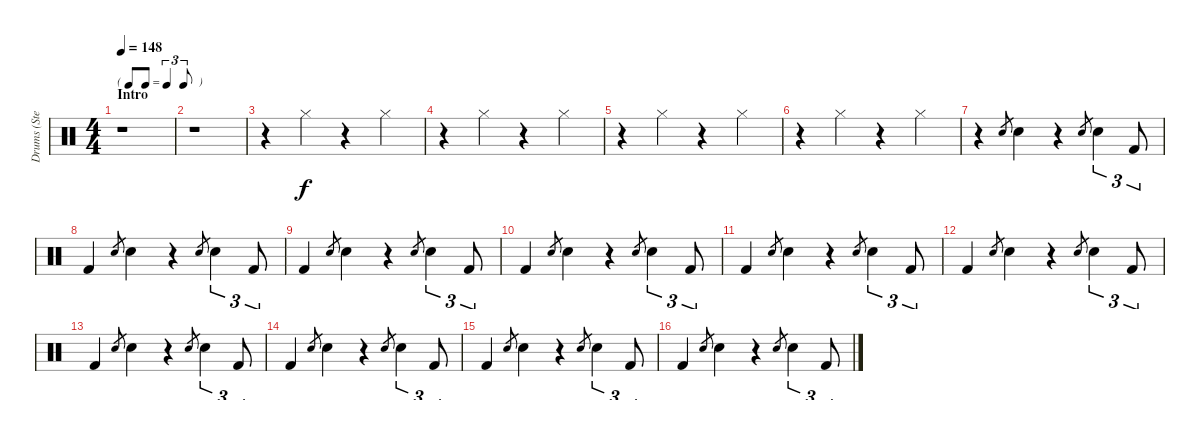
\track ("Drums (Steven)" "Drums (Ste") {instrument percussion}
\staff {score}
\articulation defaults
\ts (4 4)
\tf triplet8th
\section ("" "Intro")
\tempo 148
\clef neutral
\ks c
r.1{dy f} |
r.1 |
r.4 "Hi-Hat (closed)".4 r.4 "Hi-Hat (closed)".4 |
r.4 "Hi-Hat (closed)".4 r.4 "Hi-Hat (closed)".4 |
r.4 "Hi-Hat (closed)".4 r.4 "Hi-Hat (closed)".4 |
r.4 "Hi-Hat (closed)".4 r.4 "Hi-Hat (closed)".4 |
r.4 "Snare (hit) 2".8{gr} "Snare (hit) 2".4 r.4 "Snare (hit) 2".8{gr} "Snare (hit) 2".4{tu (3 2)} "Kick (hit) 2".8{tu (3 2)} |
"Kick (hit) 2".4 "Snare (hit) 2".8{gr} "Snare (hit) 2".4 r.4 "Snare (hit) 2".8{gr} "Snare (hit) 2".4{tu (3 2)} "Kick (hit) 2".8{tu (3 2)} |
"Kick (hit) 2".4 "Snare (hit) 2".8{gr} "Snare (hit) 2".4 r.4 "Snare (hit) 2".8{gr} "Snare (hit) 2".4{tu (3 2)} "Kick (hit) 2".8{tu (3 2)} |
"Kick (hit) 2".4 "Snare (hit) 2".8{gr} "Snare (hit) 2".4 r.4 "Snare (hit) 2".8{gr} "Snare (hit) 2".4{tu (3 2)} "Kick (hit) 2".8{tu (3 2)} |
"Kick (hit) 2".4 "Snare (hit) 2".8{gr} "Snare (hit) 2".4 r.4 "Snare (hit) 2".8{gr} "Snare (hit) 2".4{tu (3 2)} "Kick (hit) 2".8{tu (3 2)} |
"Kick (hit) 2".4 "Snare (hit) 2".8{gr} "Snare (hit) 2".4 r.4 "Snare (hit) 2".8{gr} "Snare (hit) 2".4{tu (3 2)} "Kick (hit) 2".8{tu (3 2)} |
"Kick (hit) 2".4 "Snare (hit) 2".8{gr} "Snare (hit) 2".4 r.4 "Snare (hit) 2".8{gr} "Snare (hit) 2".4{tu (3 2)} "Kick (hit) 2".8{tu (3 2)} |
"Kick (hit) 2".4 "Snare (hit) 2".8{gr} "Snare (hit) 2".4 r.4 "Snare (hit) 2".8{gr} "Snare (hit) 2".4{tu (3 2)} "Kick (hit) 2".8{tu (3 2)} |
"Kick (hit) 2".4 "Snare (hit) 2".8{gr} "Snare (hit) 2".4 r.4 "Snare (hit) 2".8{gr} "Snare (hit) 2".4{tu (3 2)} "Kick (hit) 2".8{tu (3 2)} |
"Kick (hit) 2".4 "Snare (hit) 2".8{gr} "Snare (hit) 2".4 r.4 "Snare (hit) 2".8{gr} "Snare (hit) 2".4{tu (3 2)} "Kick (hit) 2".8{tu (3 2)}
